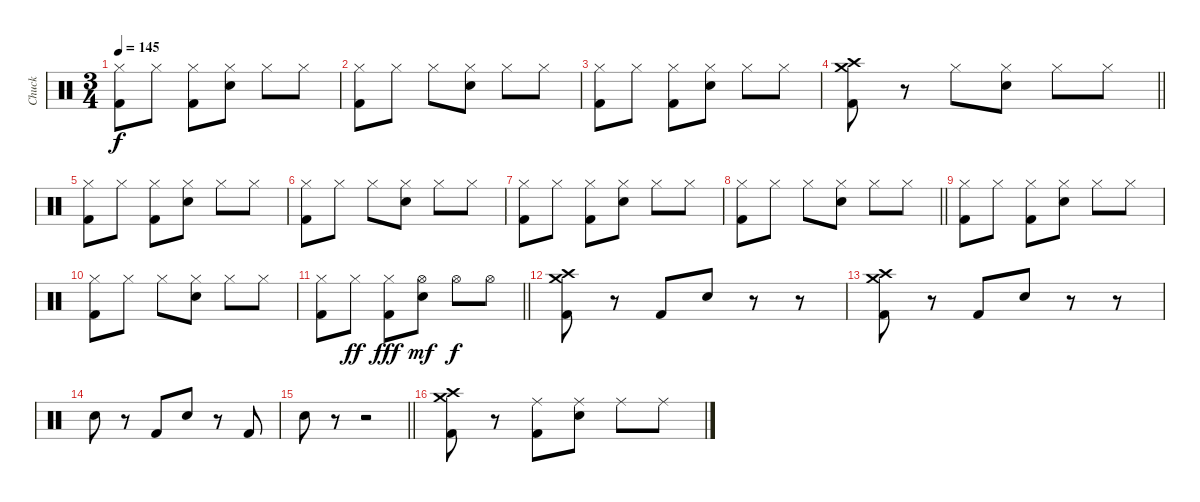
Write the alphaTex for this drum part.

\track ("Chuck" "Chuck") {instrument percussion}
\staff {score}
\articulation defaults
\ts (3 4)
\tempo 145
\clef neutral
\ks c
("Hi-Hat (closed)" "Kick (hit) 2").8{dy f} "Hi-Hat (closed)".8 ("Hi-Hat (closed)" "Kick (hit) 2").8 ("Hi-Hat (closed)" "Electric Snare (hit)").8 "Hi-Hat (closed)".8 "Hi-Hat (closed)".8 |
("Hi-Hat (closed)" "Kick (hit) 2").8 "Hi-Hat (closed)".8 "Hi-Hat (closed)".8 ("Hi-Hat (closed)" "Electric Snare (hit)").8 "Hi-Hat (closed)".8 "Hi-Hat (closed)".8 |
("Hi-Hat (closed)" "Kick (hit) 2").8 "Hi-Hat (closed)".8 ("Hi-Hat (closed)" "Kick (hit) 2").8 ("Hi-Hat (closed)" "Electric Snare (hit)").8 "Hi-Hat (closed)".8 "Hi-Hat (closed)".8 |
\barLineRight lightlight
("Crash medium (hit)" "Crash high (hit)" "Kick (hit) 2").8 r.8 "Hi-Hat (closed)".8 ("Hi-Hat (closed)" "Electric Snare (hit)").8 "Hi-Hat (closed)".8 "Hi-Hat (closed)".8 |
("Hi-Hat (closed)" "Kick (hit) 2").8 "Hi-Hat (closed)".8 ("Hi-Hat (closed)" "Kick (hit) 2").8 ("Hi-Hat (closed)" "Electric Snare (hit)").8 "Hi-Hat (closed)".8 "Hi-Hat (closed)".8 |
("Hi-Hat (closed)" "Kick (hit) 2").8 "Hi-Hat (closed)".8 "Hi-Hat (closed)".8 ("Hi-Hat (closed)" "Electric Snare (hit)").8 "Hi-Hat (closed)".8 "Hi-Hat (closed)".8 |
("Hi-Hat (closed)" "Kick (hit) 2").8 "Hi-Hat (closed)".8 ("Hi-Hat (closed)" "Kick (hit) 2").8 ("Hi-Hat (closed)" "Electric Snare (hit)").8 "Hi-Hat (closed)".8 "Hi-Hat (closed)".8 |
\barLineRight lightlight
("Hi-Hat (closed)" "Kick (hit) 2").8 "Hi-Hat (closed)".8 "Hi-Hat (closed)".8 ("Hi-Hat (closed)" "Electric Snare (hit)").8 "Hi-Hat (closed)".8 "Hi-Hat (closed)".8 |
("Hi-Hat (closed)" "Kick (hit) 2").8 "Hi-Hat (closed)".8 ("Hi-Hat (closed)" "Kick (hit) 2").8 ("Hi-Hat (closed)" "Electric Snare (hit)").8 "Hi-Hat (closed)".8 "Hi-Hat (closed)".8 |
("Hi-Hat (closed)" "Kick (hit) 2").8 "Hi-Hat (closed)".8 "Hi-Hat (closed)".8 ("Hi-Hat (closed)" "Electric Snare (hit)").8 "Hi-Hat (closed)".8 "Hi-Hat (closed)".8 |
\barLineRight lightlight
("Hi-Hat (closed)" "Kick (hit) 2").8 "Hi-Hat (closed)".8{dy ff} ("Hi-Hat (closed)" "Kick (hit) 2").8{dy fff} ("Hi-Hat (open)" "Electric Snare (hit)").8{dy mf} "Hi-Hat (open)".8{dy f} "Hi-Hat (open)".8 |
("Crash medium (hit)" "Crash high (hit)" "Kick (hit) 2").8 r.8 "Kick (hit) 2".8 "Electric Snare (hit)".8 r.8 r.8 |
("Crash medium (hit)" "Crash high (hit)" "Kick (hit) 2").8 r.8 "Kick (hit) 2".8 "Electric Snare (hit)".8 r.8 r.8 |
"Electric Snare (hit)".8 r.8 "Kick (hit) 2".8 "Electric Snare (hit)".8 r.8 "Kick (hit) 2".8 |
\barLineRight lightlight "Electric Snare (hit)".8
r.8 r.2 |
("Crash medium (hit)" "Crash high (hit)" "Kick (hit) 2").8 r.8 ("Ride (middle)" "Kick (hit) 2").8 ("Ride (middle)" "Electric Snare (hit)").8 "Ride (middle)".8 "Ride (middle)".8
